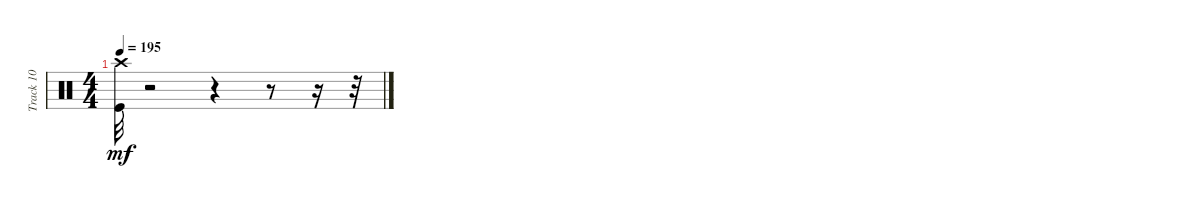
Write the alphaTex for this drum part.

\track ("Track 10" "Track 10") {instrument percussion}
\staff {score}
\articulation defaults
\ts (4 4)
\tempo 195
\clef neutral
\ks c
("Crash high (hit)" "Kick (hit)").32{dy mf} r.2 r.4 r.8 r.16 r.32
